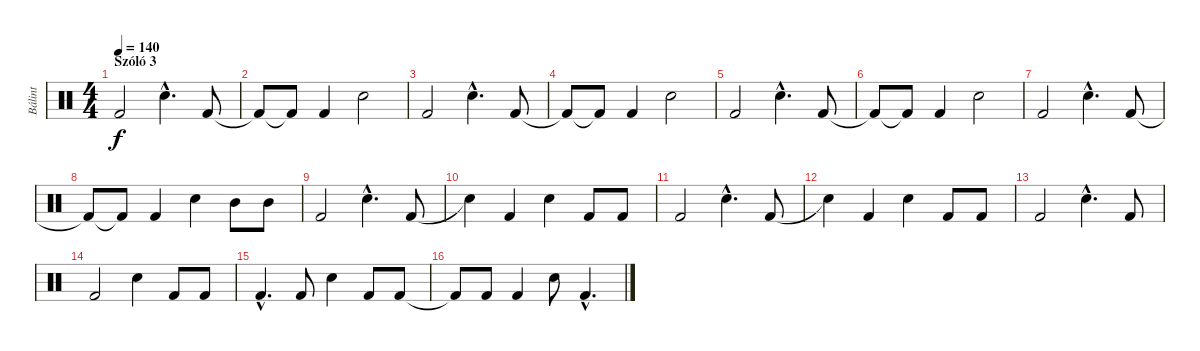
\track ("Bálint" "Bálint") {instrument percussion}
\staff {score}
\articulation defaults
\ts (4 4)
\section ("" "Szóló 3")
\tempo 140
\clef neutral
\ks c "Kick (hit) 2".2{dy f} "Snare (hit) 2"{hac}.4{d} "Kick (hit) 2".8
|
"Kick (hit) 2"{t}.8 "Kick (hit) 2"{t}.8 "Kick (hit) 2".4 "Snare (hit) 2".2 |
"Kick (hit) 2".2 "Snare (hit) 2"{hac}.4{d} "Kick (hit) 2".8 |
"Kick (hit) 2"{t}.8 "Kick (hit) 2"{t}.8 "Kick (hit) 2".4 "Snare (hit) 2".2 |
"Kick (hit) 2".2 "Snare (hit) 2"{hac}.4{d} "Kick (hit) 2".8 |
"Kick (hit) 2"{t}.8 "Kick (hit) 2"{t}.8 "Kick (hit) 2".4 "Snare (hit) 2".2 |
"Kick (hit) 2".2 "Snare (hit) 2"{hac}.4{d} "Kick (hit) 2".8 |
"Kick (hit) 2"{t}.8 "Kick (hit) 2"{t}.8 "Kick (hit) 2".4 "Snare (hit) 2".4 "Mid Tom (hit)".8 "Mid Tom (hit)".8 |
"Kick (hit) 2".2 "Snare (hit) 2"{hac}.4{d} "Kick (hit) 2".8 |
"Snare (hit)"{t}.4 "Kick (hit) 2".4 "Snare (hit) 2".4 "Kick (hit) 2".8 "Kick (hit) 2".8 |
"Kick (hit) 2".2 "Snare (hit) 2"{hac}.4{d} "Kick (hit) 2".8 |
"Snare (hit)"{t}.4 "Kick (hit) 2".4 "Snare (hit) 2".4 "Kick (hit) 2".8 "Kick (hit) 2".8 |
"Kick (hit) 2".2 "Snare (hit) 2"{hac}.4{d} "Kick (hit) 2".8 |
"Kick (hit) 2".2 "Snare (hit) 2".4 "Kick (hit) 2".8 "Kick (hit) 2".8 |
"Kick (hit) 2"{hac}.4{d} "Kick (hit) 2".8 "Snare (hit) 2".4 "Kick (hit) 2".8 "Kick (hit) 2".8 |
"Kick (hit) 2"{t}.8 "Kick (hit) 2".8 "Kick (hit) 2".4 "Snare (hit) 2".8 "Kick (hit) 2"{hac}.4{d}
